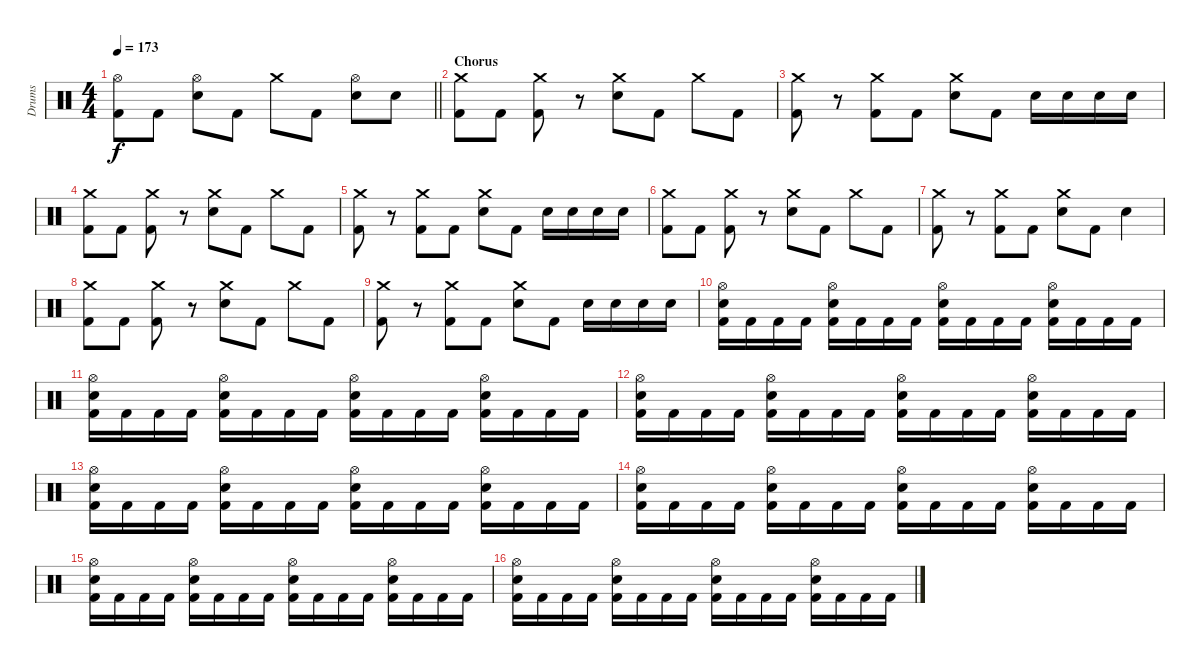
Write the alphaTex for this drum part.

\track ("Drums" "Drums") {instrument percussion}
\staff {score}
\articulation defaults
\ts (4 4)
\tempo 173
\clef neutral
\barLineRight lightlight
\ks c
("Hi-Hat (open)" "Kick (hit) 2").8{dy f} "Kick (hit) 2".8 ("Hi-Hat (open)" "Snare (hit) 2").8 "Kick (hit) 2".8 "Crash medium (hit)".8 "Kick (hit) 2".8 ("Hi-Hat (open)" "Snare (hit) 2").8 "Snare (hit) 2".8 |
\section ("" "Chorus")
("Crash medium (hit)" "Kick (hit) 2").8 "Kick (hit) 2".8 ("Crash medium (hit)" "Kick (hit) 2").8 r.8 ("Crash medium (hit)" "Snare (hit) 2").8 "Kick (hit) 2".8 "Crash medium (hit)".8 "Kick (hit) 2".8 |
("Crash medium (hit)" "Kick (hit) 2").8 r.8 ("Crash medium (hit)" "Kick (hit) 2").8 "Kick (hit) 2".8 ("Crash medium (hit)" "Snare (hit) 2").8 "Kick (hit) 2".8 "Snare (hit) 2".16 "Snare (hit) 2".16 "Snare (hit) 2".16 "Snare (hit) 2".16 |
("Crash medium (hit)" "Kick (hit) 2").8 "Kick (hit) 2".8 ("Crash medium (hit)" "Kick (hit) 2").8 r.8 ("Crash medium (hit)" "Snare (hit) 2").8 "Kick (hit) 2".8 "Crash medium (hit)".8 "Kick (hit) 2".8 |
("Crash medium (hit)" "Kick (hit) 2").8 r.8 ("Crash medium (hit)" "Kick (hit) 2").8 "Kick (hit) 2".8 ("Crash medium (hit)" "Snare (hit) 2").8 "Kick (hit) 2".8 "Snare (hit) 2".16 "Snare (hit) 2".16 "Snare (hit) 2".16 "Snare (hit) 2".16 |
("Crash medium (hit)" "Kick (hit) 2").8 "Kick (hit) 2".8 ("Crash medium (hit)" "Kick (hit) 2").8 r.8 ("Crash medium (hit)" "Snare (hit) 2").8 "Kick (hit) 2".8 "Crash medium (hit)".8 "Kick (hit) 2".8 |
("Crash medium (hit)" "Kick (hit) 2").8 r.8 ("Crash medium (hit)" "Kick (hit) 2").8 "Kick (hit) 2".8 ("Crash medium (hit)" "Snare (hit) 2").8 "Kick (hit) 2".8 "Snare (hit) 2".4 |
("Crash medium (hit)" "Kick (hit) 2").8 "Kick (hit) 2".8 ("Crash medium (hit)" "Kick (hit) 2").8 r.8 ("Crash medium (hit)" "Snare (hit) 2").8 "Kick (hit) 2".8 "Crash medium (hit)".8 "Kick (hit) 2".8 |
("Crash medium (hit)" "Kick (hit) 2").8 r.8 ("Crash medium (hit)" "Kick (hit) 2").8 "Kick (hit) 2".8 ("Crash medium (hit)" "Snare (hit) 2").8 "Kick (hit) 2".8 "Snare (hit) 2".16 "Snare (hit) 2".16 "Snare (hit) 2".16 "Snare (hit) 2".16 |
("Hi-Hat (open)" "Snare (hit) 2" "Kick (hit) 2").16 "Kick (hit) 2".16 "Kick (hit) 2".16 "Kick (hit) 2".16 ("Hi-Hat (open)" "Snare (hit) 2" "Kick (hit) 2").16 "Kick (hit) 2".16 "Kick (hit) 2".16 "Kick (hit) 2".16 ("Hi-Hat (open)" "Snare (hit) 2" "Kick (hit) 2").16 "Kick (hit) 2".16 "Kick (hit) 2".16 "Kick (hit) 2".16 ("Hi-Hat (open)" "Snare (hit) 2" "Kick (hit) 2").16 "Kick (hit) 2".16 "Kick (hit) 2".16 "Kick (hit) 2".16 |
("Hi-Hat (open)" "Snare (hit) 2" "Kick (hit) 2").16 "Kick (hit) 2".16 "Kick (hit) 2".16 "Kick (hit) 2".16 ("Hi-Hat (open)" "Snare (hit) 2" "Kick (hit) 2").16 "Kick (hit) 2".16 "Kick (hit) 2".16 "Kick (hit) 2".16 ("Hi-Hat (open)" "Snare (hit) 2" "Kick (hit) 2").16 "Kick (hit) 2".16 "Kick (hit) 2".16 "Kick (hit) 2".16 ("Hi-Hat (open)" "Snare (hit) 2" "Kick (hit) 2").16 "Kick (hit) 2".16 "Kick (hit) 2".16 "Kick (hit) 2".16 |
("Hi-Hat (open)" "Snare (hit) 2" "Kick (hit) 2").16 "Kick (hit) 2".16 "Kick (hit) 2".16 "Kick (hit) 2".16 ("Hi-Hat (open)" "Snare (hit) 2" "Kick (hit) 2").16 "Kick (hit) 2".16 "Kick (hit) 2".16 "Kick (hit) 2".16 ("Hi-Hat (open)" "Snare (hit) 2" "Kick (hit) 2").16 "Kick (hit) 2".16 "Kick (hit) 2".16 "Kick (hit) 2".16 ("Hi-Hat (open)" "Snare (hit) 2" "Kick (hit) 2").16 "Kick (hit) 2".16 "Kick (hit) 2".16 "Kick (hit) 2".16 |
("Hi-Hat (open)" "Snare (hit) 2" "Kick (hit) 2").16 "Kick (hit) 2".16 "Kick (hit) 2".16 "Kick (hit) 2".16 ("Hi-Hat (open)" "Snare (hit) 2" "Kick (hit) 2").16 "Kick (hit) 2".16 "Kick (hit) 2".16 "Kick (hit) 2".16 ("Hi-Hat (open)" "Snare (hit) 2" "Kick (hit) 2").16 "Kick (hit) 2".16 "Kick (hit) 2".16 "Kick (hit) 2".16 ("Hi-Hat (open)" "Snare (hit) 2" "Kick (hit) 2").16 "Kick (hit) 2".16 "Kick (hit) 2".16 "Kick (hit) 2".16 |
("Hi-Hat (open)" "Snare (hit) 2" "Kick (hit) 2").16 "Kick (hit) 2".16 "Kick (hit) 2".16 "Kick (hit) 2".16 ("Hi-Hat (open)" "Snare (hit) 2" "Kick (hit) 2").16 "Kick (hit) 2".16 "Kick (hit) 2".16 "Kick (hit) 2".16 ("Hi-Hat (open)" "Snare (hit) 2" "Kick (hit) 2").16 "Kick (hit) 2".16 "Kick (hit) 2".16 "Kick (hit) 2".16 ("Hi-Hat (open)" "Snare (hit) 2" "Kick (hit) 2").16 "Kick (hit) 2".16 "Kick (hit) 2".16 "Kick (hit) 2".16 |
("Hi-Hat (open)" "Snare (hit) 2" "Kick (hit) 2").16 "Kick (hit) 2".16 "Kick (hit) 2".16 "Kick (hit) 2".16 ("Hi-Hat (open)" "Snare (hit) 2" "Kick (hit) 2").16 "Kick (hit) 2".16 "Kick (hit) 2".16 "Kick (hit) 2".16 ("Hi-Hat (open)" "Snare (hit) 2" "Kick (hit) 2").16 "Kick (hit) 2".16 "Kick (hit) 2".16 "Kick (hit) 2".16 ("Hi-Hat (open)" "Snare (hit) 2" "Kick (hit) 2").16 "Kick (hit) 2".16 "Kick (hit) 2".16 "Kick (hit) 2".16 |
("Hi-Hat (open)" "Snare (hit) 2" "Kick (hit) 2").16 "Kick (hit) 2".16 "Kick (hit) 2".16 "Kick (hit) 2".16 ("Hi-Hat (open)" "Snare (hit) 2" "Kick (hit) 2").16 "Kick (hit) 2".16 "Kick (hit) 2".16 "Kick (hit) 2".16 ("Hi-Hat (open)" "Snare (hit) 2" "Kick (hit) 2").16 "Kick (hit) 2".16 "Kick (hit) 2".16 "Kick (hit) 2".16 ("Hi-Hat (open)" "Snare (hit) 2" "Kick (hit) 2").16 "Kick (hit) 2".16 "Kick (hit) 2".16 "Kick (hit) 2".16
